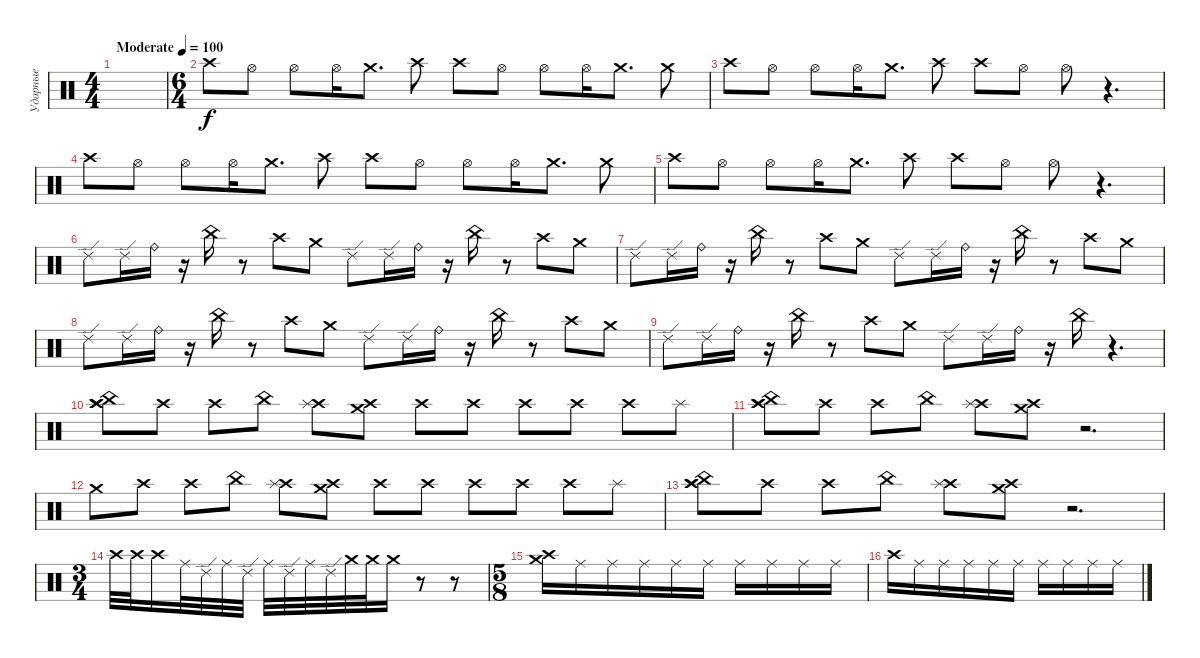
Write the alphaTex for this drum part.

\track ("Ударные" "Ударные") {instrument percussion}
\staff {score}
\articulation defaults
\ts (4 4)
\tempo (100 "Moderate")
\clef neutral
\ks c
|
\ts (6 4)
"Crash high (hit)".8 "Hi-Hat (open)".8 "Hi-Hat (open)".8 "Hi-Hat (open)".16 "Crash medium (hit)".8{d} "Crash high (hit)".8 "Crash high (hit)".8 "Hi-Hat (open)".8 "Hi-Hat (open)".8 "Hi-Hat (open)".16 "Crash medium (hit)".8{d} "Crash medium (hit)".8 |
"Crash high (hit)".8 "Hi-Hat (open)".8 "Hi-Hat (open)".8 "Hi-Hat (open)".16 "Crash medium (hit)".8{d} "Crash high (hit)".8 "Crash high (hit)".8 "Hi-Hat (open)".8 "Hi-Hat (open)".8 r.4{d} |
"Crash high (hit)".8 "Hi-Hat (open)".8 "Hi-Hat (open)".8 "Hi-Hat (open)".16 "Crash medium (hit)".8{d} "Crash high (hit)".8 "Crash high (hit)".8 "Hi-Hat (open)".8 "Hi-Hat (open)".8 "Hi-Hat (open)".16 "Crash medium (hit)".8{d} "Crash medium (hit)".8 |
"Crash high (hit)".8 "Hi-Hat (open)".8 "Hi-Hat (open)".8 "Hi-Hat (open)".16 "Crash medium (hit)".8{d} "Crash high (hit)".8 "Crash high (hit)".8 "Hi-Hat (open)".8 "Hi-Hat (open)".8 r.4{d} |
"Ride (edge) 2".8 "Ride (edge) 2".16 "Ride (bell)".16 r.16 "China (hit)".16 r.8 "Crash high (hit)".8 "Crash medium (hit)".8 "Ride (edge) 2".8 "Ride (edge) 2".16 "Ride (bell)".16 r.16 "China (hit)".16 r.8 "Crash high (hit)".8 "Crash medium (hit)".8 |
"Ride (edge) 2".8 "Ride (edge) 2".16 "Ride (bell)".16 r.16 "China (hit)".16 r.8 "Crash high (hit)".8 "Crash medium (hit)".8 "Ride (edge) 2".8 "Ride (edge) 2".16 "Ride (bell)".16 r.16 "China (hit)".16 r.8 "Crash high (hit)".8 "Crash medium (hit)".8 |
"Ride (edge) 2".8 "Ride (edge) 2".16 "Ride (bell)".16 r.16 "China (hit)".16 r.8 "Crash high (hit)".8 "Crash medium (hit)".8 "Ride (edge) 2".8 "Ride (edge) 2".16 "Ride (bell)".16 r.16 "China (hit)".16 r.8 "Crash high (hit)".8 "Crash medium (hit)".8 |
"Ride (edge) 2".8 "Ride (edge) 2".16 "Ride (bell)".16 r.16 "China (hit)".16 r.8 "Crash high (hit)".8 "Crash medium (hit)".8 "Ride (edge) 2".8 "Ride (edge) 2".16 "Ride (bell)".16 r.16 "China (hit)".16 r.4{d} |
("Crash high (hit)" "Crash high (hit)" "China (hit)").8 "Crash high (hit)".8 "Crash high (hit)".8 "China (hit)".8 ("Crash high (hit)" "Splash (hit)").8 ("Crash high (hit)" "Crash medium (hit)").8 "Crash high (hit)".8 "Crash high (hit)".8 "Crash high (hit)".8 "Crash high (hit)".8 "Crash high (hit)".8 "Splash (hit)".8 |
("Crash high (hit)" "Crash high (hit)" "China (hit)").8 "Crash high (hit)".8 "Crash high (hit)".8 "China (hit)".8 ("Crash high (hit)" "Splash (hit)").8 ("Crash high (hit)" "Crash medium (hit)").8 r.2{d} |
"Crash medium (hit)".8 "Crash high (hit)".8 "Crash high (hit)".8 "China (hit)".8 ("Crash high (hit)" "Splash (hit)").8 ("Crash high (hit)" "Crash medium (hit)").8 "Crash high (hit)".8 "Crash high (hit)".8 "Crash high (hit)".8 "Crash high (hit)".8 "Crash high (hit)".8 "Splash (hit)".8 |
("Crash high (hit)" "Crash high (hit)" "China (hit)").8 "Crash high (hit)".8 "Crash high (hit)".8 "China (hit)".8 ("Crash high (hit)" "Splash (hit)").8 ("Crash high (hit)" "Crash medium (hit)").8 r.2{d} |
\ts (3 4)
"Crash high (hit)".32 "Crash high (hit)".32 "Crash high (hit)".16 "Ride (middle)".32 "Ride (edge) 2".32 "Ride (middle)".32 "Ride (edge) 2".32 "Ride (middle)".32 "Ride (edge) 2".32 "Ride (middle)".32 "Ride (edge) 2".32 "Crash medium (hit)".32 "Crash medium (hit)".32 "Crash medium (hit)".16 r.8 r.8 |
\ts (5 8)
("Crash high (hit)" "Crash medium (hit)").16 "Ride (middle)".16 "Ride (middle)".16 "Ride (middle)".16 "Ride (middle)".16 "Ride (middle)".16 "Ride (middle)".16 "Ride (middle)".16 "Ride (middle)".16 "Ride (middle)".16 |
"Crash high (hit)".16 "Ride (middle)".16 "Ride (middle)".16 "Ride (middle)".16 "Ride (middle)".16 "Ride (middle)".16 "Ride (middle)".16 "Ride (middle)".16 "Ride (middle)".16 "Ride (middle)".16
